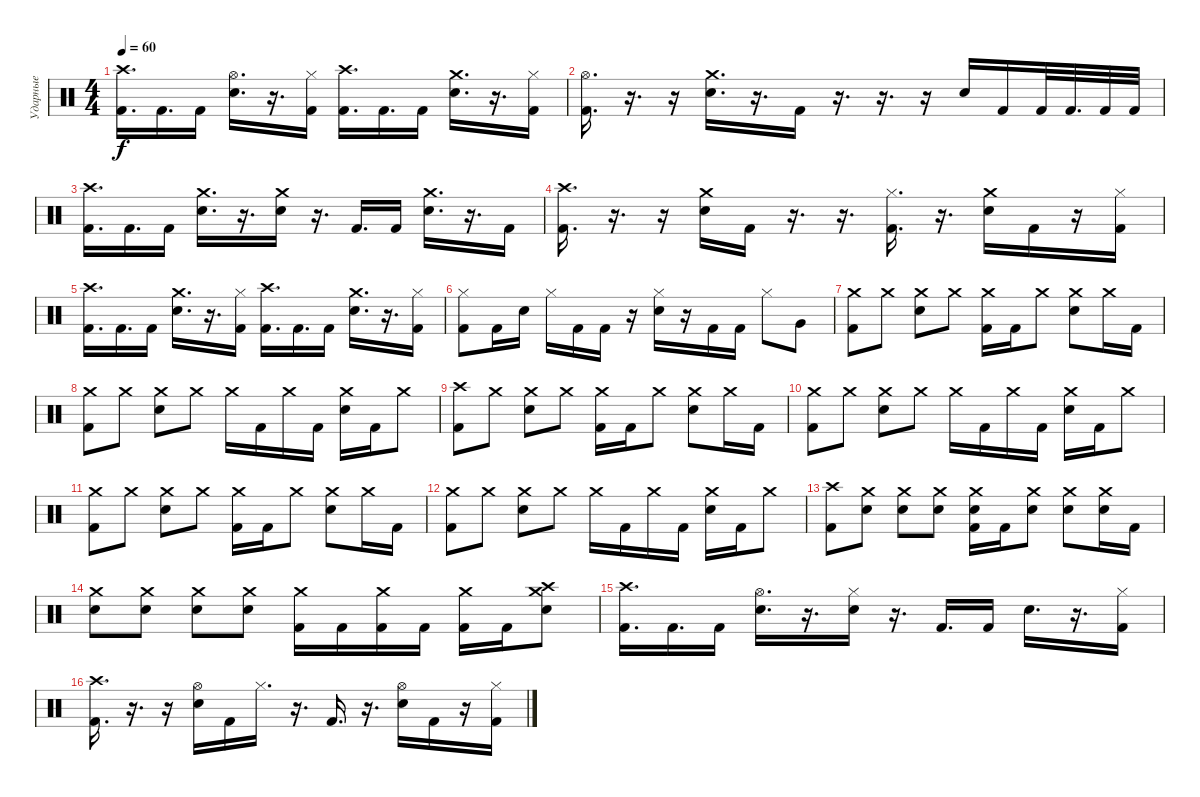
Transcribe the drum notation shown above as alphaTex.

\track ("Ударные" "Ударные") {instrument percussion}
\staff {score}
\articulation defaults
\ts (4 4)
\tempo 60
\clef neutral
\ks c
("Crash high (hit)" "Kick (hit) 2").16{d dy f} "Kick (hit) 2".16{d} "Kick (hit) 2".16 ("Hi-Hat (open)" "Electric Snare (hit)").16{d} r.16{d} ("Hi-Hat (closed)" "Kick (hit) 2").16 ("Crash high (hit)" "Kick (hit) 2").16{d} "Kick (hit) 2".16{d} "Kick (hit) 2".16 ("Crash medium (hit)" "Electric Snare (hit)").16{d} r.16{d} ("Hi-Hat (closed)" "Kick (hit) 2").16 |
("Hi-Hat (open)" "Kick (hit) 2").16{d} r.16{d} r.16 ("Crash medium (hit)" "Electric Snare (hit)").16{d} r.16{d} "Kick (hit) 2".16 r.16{d} r.16{d} r.16 "Electric Snare (hit)".16 "Kick (hit) 2".16 "Kick (hit) 2".32 "Kick (hit) 2".32{d} "Kick (hit) 2".32 "Kick (hit) 2".32 |
("Crash high (hit)" "Kick (hit) 2").16{d} "Kick (hit) 2".16{d} "Kick (hit) 2".16 ("Crash medium (hit)" "Electric Snare (hit)").16{d} r.16{d} ("Crash medium (hit)" "Electric Snare (hit)").16 r.16{d} "Kick (hit) 2".16{d} "Kick (hit) 2".16 ("Crash medium (hit)" "Electric Snare (hit)").16{d} r.16{d} "Kick (hit) 2".16 |
("Crash high (hit)" "Kick (hit) 2").16{d} r.16{d} r.16 ("Crash medium (hit)" "Electric Snare (hit)").16 "Kick (hit) 2".16 r.16{d} r.16{d} ("Hi-Hat (closed)" "Kick (hit) 2").16{d} r.16{d} ("Crash medium (hit)" "Electric Snare (hit)").16 "Kick (hit) 2".16 r.16 ("Hi-Hat (closed)" "Kick (hit) 2").16 |
("Crash high (hit)" "Kick (hit) 2").16{d} "Kick (hit) 2".16{d} "Kick (hit) 2".16 ("Crash medium (hit)" "Electric Snare (hit)").16{d} r.16{d} ("Hi-Hat (closed)" "Kick (hit) 2").16 ("Crash high (hit)" "Kick (hit) 2").16{d} "Kick (hit) 2".16{d} "Kick (hit) 2".16 ("Crash medium (hit)" "Electric Snare (hit)").16{d} r.16{d} ("Hi-Hat (closed)" "Kick (hit) 2").16 |
("Hi-Hat (closed)" "Kick (hit) 2").8 "Kick (hit) 2".16 "Electric Snare (hit)".16 "Hi-Hat (closed)".16 "Kick (hit) 2".16 "Kick (hit) 2".16 r.16 ("Hi-Hat (closed)" "Electric Snare (hit)").16 r.16 "Kick (hit) 2".16 "Kick (hit) 2".16 "Hi-Hat (closed)".8 "Very Low Tom (hit)".8 |
("Crash medium (hit)" "Kick (hit) 2").8 "Crash medium (hit)".8 ("Crash medium (hit)" "Electric Snare (hit)").8 "Crash medium (hit)".8 ("Crash medium (hit)" "Kick (hit) 2").16 "Kick (hit) 2".16 "Crash medium (hit)".8 ("Crash medium (hit)" "Electric Snare (hit)").8 "Crash medium (hit)".16 "Kick (hit) 2".16 |
("Crash medium (hit)" "Kick (hit) 2").8 "Crash medium (hit)".8 ("Crash medium (hit)" "Electric Snare (hit)").8 "Crash medium (hit)".8 "Crash medium (hit)".16 "Kick (hit) 2".16 "Crash medium (hit)".16 "Kick (hit) 2".16 ("Crash medium (hit)" "Electric Snare (hit)").16 "Kick (hit) 2".16 "Crash medium (hit)".8 |
("Crash high (hit)" "Kick (hit) 2").8 "Crash medium (hit)".8 ("Crash medium (hit)" "Electric Snare (hit)").8 "Crash medium (hit)".8 ("Crash medium (hit)" "Kick (hit) 2").16 "Kick (hit) 2".16 "Crash medium (hit)".8 ("Crash medium (hit)" "Electric Snare (hit)").8 "Crash medium (hit)".16 "Kick (hit) 2".16 |
("Crash medium (hit)" "Kick (hit) 2").8 "Crash medium (hit)".8 ("Crash medium (hit)" "Electric Snare (hit)").8 "Crash medium (hit)".8 "Crash medium (hit)".16 "Kick (hit) 2".16 "Crash medium (hit)".16 "Kick (hit) 2".16 ("Crash medium (hit)" "Electric Snare (hit)").16 "Kick (hit) 2".16 "Crash medium (hit)".8 |
("Crash medium (hit)" "Kick (hit) 2").8 "Crash medium (hit)".8 ("Crash medium (hit)" "Electric Snare (hit)").8 "Crash medium (hit)".8 ("Crash medium (hit)" "Kick (hit) 2").16 "Kick (hit) 2".16 "Crash medium (hit)".8 ("Crash medium (hit)" "Electric Snare (hit)").8 "Crash medium (hit)".16 "Kick (hit) 2".16 |
("Crash medium (hit)" "Kick (hit) 2").8 "Crash medium (hit)".8 ("Crash medium (hit)" "Electric Snare (hit)").8 "Crash medium (hit)".8 "Crash medium (hit)".16 "Kick (hit) 2".16 "Crash medium (hit)".16 "Kick (hit) 2".16 ("Crash medium (hit)" "Electric Snare (hit)").16 "Kick (hit) 2".16 "Crash medium (hit)".8 |
("Crash high (hit)" "Kick (hit) 2").8 ("Crash medium (hit)" "Electric Snare (hit)").8 ("Crash medium (hit)" "Electric Snare (hit)").8 ("Crash medium (hit)" "Electric Snare (hit)").8 ("Crash medium (hit)" "Electric Snare (hit)" "Kick (hit) 2").16 "Kick (hit) 2".16 ("Crash medium (hit)" "Electric Snare (hit)").8 ("Crash medium (hit)" "Electric Snare (hit)").8 ("Crash medium (hit)" "Electric Snare (hit)").16 "Kick (hit) 2".16 |
("Crash medium (hit)" "Electric Snare (hit)").8 ("Crash medium (hit)" "Electric Snare (hit)").8 ("Crash medium (hit)" "Electric Snare (hit)").8 ("Crash medium (hit)" "Electric Snare (hit)").8 ("Crash medium (hit)" "Kick (hit) 2").16 "Kick (hit) 2".16 ("Crash medium (hit)" "Kick (hit) 2").16 "Kick (hit) 2".16 ("Crash medium (hit)" "Kick (hit) 2").16 "Kick (hit) 2".16 ("Crash high (hit)" "Crash medium (hit)" "Electric Snare (hit)").8 |
("Crash high (hit)" "Kick (hit) 2").16{d} "Kick (hit) 2".16{d} "Kick (hit) 2".16 ("Hi-Hat (open)" "Electric Snare (hit)").16{d} r.16{d} ("Hi-Hat (closed)" "Electric Snare (hit)").16 r.16{d} "Kick (hit) 2".16{d} "Kick (hit) 2".16 "Electric Snare (hit)".16{d} r.16{d} ("Hi-Hat (closed)" "Kick (hit) 2").16 |
("Crash high (hit)" "Kick (hit) 2").16{d} r.16{d} r.16 ("Hi-Hat (open)" "Electric Snare (hit)").16 "Kick (hit) 2".16 "Hi-Hat (closed)".16{d} r.16{d} "Kick (hit) 2".16{d} r.16{d} ("Hi-Hat (open)" "Electric Snare (hit)").16 "Kick (hit) 2".16 r.16 ("Hi-Hat (closed)" "Kick (hit) 2").16
